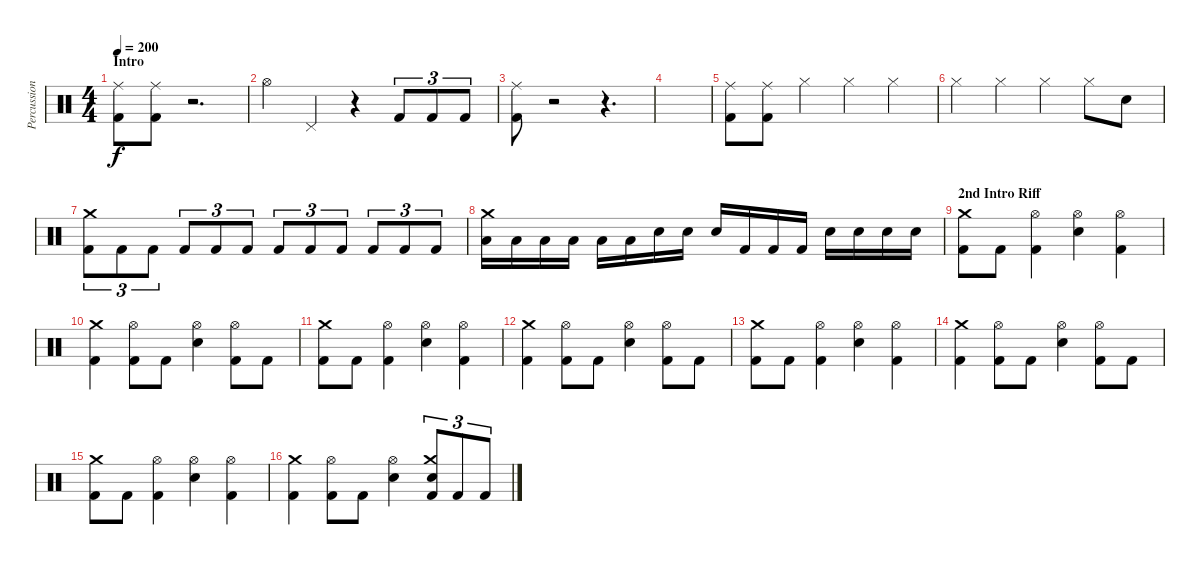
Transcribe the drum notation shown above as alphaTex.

\track ("Percussion" "Percussion") {instrument percussion}
\staff {score}
\articulation defaults
\ts (4 4)
\section ("" "Intro")
\tempo 200
\clef neutral
\ks c
("Ride (middle)" "Kick (hit) 2").8{dy f} ("Ride (middle)" "Kick (hit) 2").8 r.2{d} |
"Hi-Hat (open)".4 "Pedal Hi-Hat (hit)".4 r.4 "Kick (hit) 2".8{tu (3 2)} "Kick (hit) 2".8{tu (3 2)} "Kick (hit) 2".8{tu (3 2)} |
("Ride (middle)" "Kick (hit) 2").8 r.2 r.4{d} |
|
("Ride (middle)" "Kick (hit) 2").8 ("Ride (middle)" "Kick (hit) 2").8 "Hi-Hat (closed)".4 "Hi-Hat (closed)".4 "Hi-Hat (closed)".4 |
"Hi-Hat (closed)".4 "Hi-Hat (closed)".4 "Hi-Hat (closed)".4 "Hi-Hat (closed)".8 "Snare (hit) 2".8 |
("Crash medium (hit)" "Kick (hit) 2").8{tu (3 2)} "Kick (hit) 2".8{tu (3 2)} "Kick (hit) 2".8{tu (3 2)} "Kick (hit) 2".8{tu (3 2)} "Kick (hit) 2".8{tu (3 2)} "Kick (hit) 2".8{tu (3 2)} "Kick (hit) 2".8{tu (3 2)} "Kick (hit) 2".8{tu (3 2)} "Kick (hit) 2".8{tu (3 2)} "Kick (hit) 2".8{tu (3 2)} "Kick (hit) 2".8{tu (3 2)} "Kick (hit) 2".8{tu (3 2)} |
("Crash medium (hit)" "Low Tom (hit)").16 "Low Tom (hit)".16 "Low Tom (hit)".16 "Low Floor Tom (hit)".16 "Low Floor Tom (hit)".16 "Low Floor Tom (hit)".16 "Electric Snare (hit)".16 "Electric Snare (hit)".16 "Electric Snare (hit)".16 "Kick (hit) 2".16 "Kick (hit) 2".16 "Kick (hit) 2".16 "Electric Snare (hit)".16 "Electric Snare (hit)".16 "Electric Snare (hit)".16 "Electric Snare (hit)".16 |
\section ("" "2nd Intro Riff")
("Crash medium (hit)" "Kick (hit) 2").8 "Kick (hit) 2".8 ("Hi-Hat (open)" "Kick (hit) 2").4 ("Hi-Hat (open)" "Electric Snare (hit)").4 ("Hi-Hat (open)" "Kick (hit) 2").4 |
("Crash medium (hit)" "Kick (hit) 2").4 ("Hi-Hat (open)" "Kick (hit) 2").8 "Kick (hit) 2".8 ("Hi-Hat (open)" "Electric Snare (hit)").4 ("Hi-Hat (open)" "Kick (hit) 2").8 "Kick (hit) 2".8 |
("Crash medium (hit)" "Kick (hit) 2").8 "Kick (hit) 2".8 ("Hi-Hat (open)" "Kick (hit) 2").4 ("Hi-Hat (open)" "Electric Snare (hit)").4 ("Hi-Hat (open)" "Kick (hit) 2").4 |
("Crash medium (hit)" "Kick (hit) 2").4 ("Hi-Hat (open)" "Kick (hit) 2").8 "Kick (hit) 2".8 ("Hi-Hat (open)" "Electric Snare (hit)").4 ("Hi-Hat (open)" "Kick (hit) 2").8 "Kick (hit) 2".8 |
("Crash medium (hit)" "Kick (hit) 2").8 "Kick (hit) 2".8 ("Hi-Hat (open)" "Kick (hit) 2").4 ("Hi-Hat (open)" "Electric Snare (hit)").4 ("Hi-Hat (open)" "Kick (hit) 2").4 |
("Crash medium (hit)" "Kick (hit) 2").4 ("Hi-Hat (open)" "Kick (hit) 2").8 "Kick (hit) 2".8 ("Hi-Hat (open)" "Electric Snare (hit)").4 ("Hi-Hat (open)" "Kick (hit) 2").8 "Kick (hit) 2".8 |
("Crash medium (hit)" "Kick (hit) 2").8 "Kick (hit) 2".8 ("Hi-Hat (open)" "Kick (hit) 2").4 ("Hi-Hat (open)" "Electric Snare (hit)").4 ("Hi-Hat (open)" "Kick (hit) 2").4 |
("Crash medium (hit)" "Kick (hit) 2").4 ("Hi-Hat (open)" "Kick (hit) 2").8 "Kick (hit) 2".8 ("Hi-Hat (open)" "Electric Snare (hit)").4 ("Crash medium (hit)" "Electric Snare (hit)" "Kick (hit) 2").8{tu (3 2)} "Kick (hit) 2".8{tu (3 2)} "Kick (hit) 2".8{tu (3 2)}
